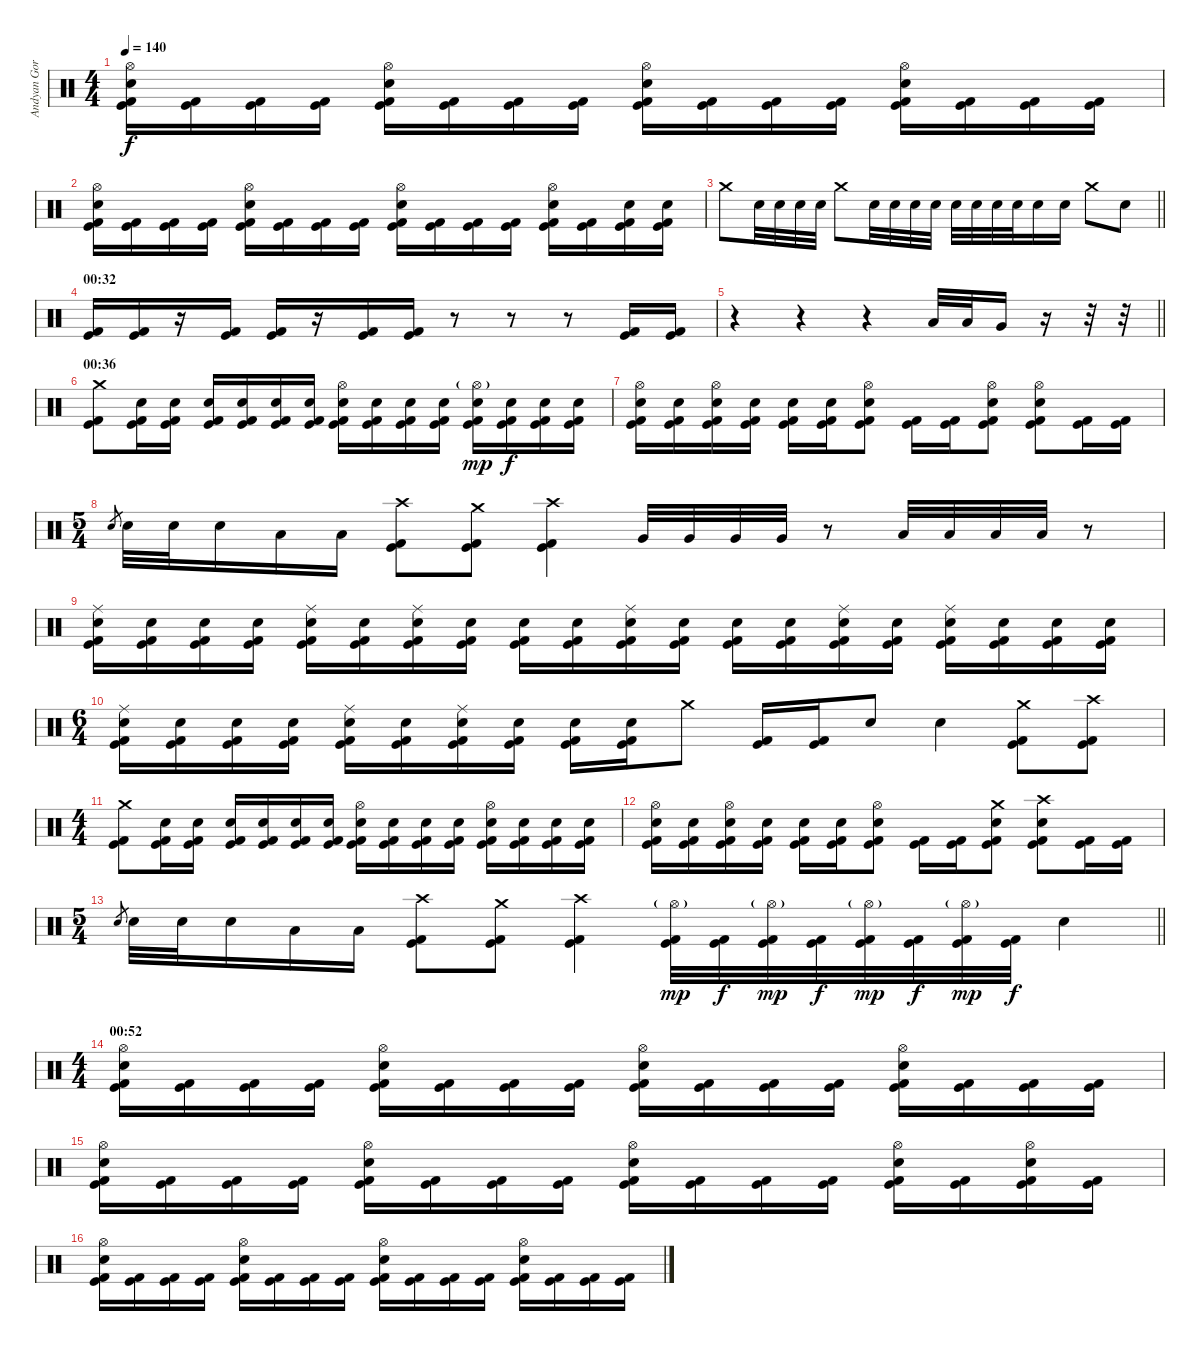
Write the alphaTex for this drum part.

\track ("Andyan Gorust" "Andyan Gor") {instrument percussion}
\staff {score}
\articulation defaults
\ts (4 4)
\tempo 140
\clef neutral
\ks c
("Hi-Hat (open)" "Electric Snare (hit)" "Kick (hit) 2" "Kick (hit)").16{dy f} ("Kick (hit)" "Kick (hit) 2").16 ("Kick (hit)" "Kick (hit) 2").16 ("Kick (hit)" "Kick (hit) 2").16 ("Hi-Hat (open)" "Electric Snare (hit)" "Kick (hit)" "Kick (hit) 2").16 ("Kick (hit)" "Kick (hit) 2").16 ("Kick (hit)" "Kick (hit) 2").16 ("Kick (hit)" "Kick (hit) 2").16 ("Hi-Hat (open)" "Electric Snare (hit)" "Kick (hit)" "Kick (hit) 2").16 ("Kick (hit)" "Kick (hit) 2").16 ("Kick (hit)" "Kick (hit) 2").16 ("Kick (hit)" "Kick (hit) 2").16 ("Hi-Hat (open)" "Electric Snare (hit)" "Kick (hit)" "Kick (hit) 2").16 ("Kick (hit)" "Kick (hit) 2").16 ("Kick (hit)" "Kick (hit) 2").16 ("Kick (hit)" "Kick (hit) 2").16 |
("Hi-Hat (open)" "Electric Snare (hit)" "Kick (hit) 2" "Kick (hit)").16 ("Kick (hit)" "Kick (hit) 2").16 ("Kick (hit)" "Kick (hit) 2").16 ("Kick (hit)" "Kick (hit) 2").16 ("Hi-Hat (open)" "Electric Snare (hit)" "Kick (hit)" "Kick (hit) 2").16 ("Kick (hit)" "Kick (hit) 2").16 ("Kick (hit)" "Kick (hit) 2").16 ("Kick (hit)" "Kick (hit) 2").16 ("Hi-Hat (open)" "Electric Snare (hit)" "Kick (hit)" "Kick (hit) 2").16 ("Kick (hit)" "Kick (hit) 2").16 ("Kick (hit)" "Kick (hit) 2").16 ("Kick (hit)" "Kick (hit) 2").16 ("Hi-Hat (open)" "Electric Snare (hit)" "Kick (hit)" "Kick (hit) 2").16 ("Kick (hit)" "Kick (hit) 2").16 ("Electric Snare (hit)" "Kick (hit)" "Kick (hit) 2").16 ("Electric Snare (hit)" "Kick (hit)" "Kick (hit) 2").16 |
\barLineRight lightlight "Crash medium (hit)".8 "Electric Snare (hit)".32 "Electric Snare (hit)".32 "Electric Snare (hit)".32 "Electric Snare (hit)".32 "Crash medium (hit)".8 "Electric Snare (hit)".32 "Electric Snare (hit)".32 "Electric Snare (hit)".32 "Electric Snare (hit)".32 "Electric Snare (hit)".32 "Electric Snare (hit)".32 "Electric Snare (hit)".32 "Electric Snare (hit)".32 "Electric Snare (hit)".16 "Electric Snare (hit)".16 "Crash medium (hit)".8 "Electric Snare (hit)".8
|
\section ("" "00:32")
("Kick (hit)" "Kick (hit) 2").16 ("Kick (hit)" "Kick (hit) 2").16 r.16 ("Kick (hit)" "Kick (hit) 2").16 ("Kick (hit)" "Kick (hit) 2").16 r.16 ("Kick (hit)" "Kick (hit) 2").16 ("Kick (hit)" "Kick (hit) 2").16 r.8 r.8 r.8 ("Kick (hit)" "Kick (hit) 2").16 ("Kick (hit)" "Kick (hit) 2").16 |
\barLineRight lightlight
r.4 r.4 r.4 "Low Tom (hit)".32 "Low Tom (hit)".32 "Very Low Tom (hit)".16 r.16 r.32 r.32 |
\section ("" "00:36")
("Crash medium (hit)" "Kick (hit)" "Kick (hit) 2").8 ("Electric Snare (hit)" "Kick (hit)" "Kick (hit) 2").16 ("Electric Snare (hit)" "Kick (hit)" "Kick (hit) 2").16 ("Electric Snare (hit)" "Kick (hit)" "Kick (hit) 2").16 ("Electric Snare (hit)" "Kick (hit)" "Kick (hit) 2").16 ("Electric Snare (hit)" "Kick (hit)" "Kick (hit) 2").16 ("Electric Snare (hit)" "Kick (hit)" "Kick (hit) 2").16 ("Hi-Hat (open)" "Electric Snare (hit)" "Kick (hit)" "Kick (hit) 2").16 ("Electric Snare (hit)" "Kick (hit)" "Kick (hit) 2").16 ("Electric Snare (hit)" "Kick (hit)" "Kick (hit) 2").16 ("Electric Snare (hit)" "Kick (hit)" "Kick (hit) 2").16 ("Hi-Hat (open)"{g} "Electric Snare (hit)" "Kick (hit)" "Kick (hit) 2").16{dy mp} ("Electric Snare (hit)" "Kick (hit)" "Kick (hit) 2").16{dy f} ("Electric Snare (hit)" "Kick (hit)" "Kick (hit) 2").16 ("Electric Snare (hit)" "Kick (hit)" "Kick (hit) 2").16 |
("Hi-Hat (open)" "Electric Snare (hit)" "Kick (hit)" "Kick (hit) 2").16 ("Electric Snare (hit)" "Kick (hit)" "Kick (hit) 2").16 ("Hi-Hat (open)" "Electric Snare (hit)" "Kick (hit)" "Kick (hit) 2").16 ("Electric Snare (hit)" "Kick (hit)" "Kick (hit) 2").16 ("Electric Snare (hit)" "Kick (hit)" "Kick (hit) 2").16 ("Electric Snare (hit)" "Kick (hit)" "Kick (hit) 2").16 ("Hi-Hat (open)" "Electric Snare (hit)" "Kick (hit)" "Kick (hit) 2").8 ("Kick (hit)" "Kick (hit) 2").16 ("Kick (hit)" "Kick (hit) 2").16 ("Hi-Hat (open)" "Electric Snare (hit)" "Kick (hit)" "Kick (hit) 2").8 ("Hi-Hat (open)" "Electric Snare (hit)" "Kick (hit)" "Kick (hit) 2").8 ("Kick (hit)" "Kick (hit) 2").16 ("Kick (hit)" "Kick (hit) 2").16 |
\ts (5 4)
"Electric Snare (hit)".8{gr} "Electric Snare (hit)".32 "Electric Snare (hit)".32 "Electric Snare (hit)".16 "Low Tom (hit)".16 "Low Tom (hit)".16 ("Crash high (hit)" "Kick (hit)" "Kick (hit) 2").8 ("Crash medium (hit)" "Kick (hit)" "Kick (hit) 2").8 ("Crash high (hit)" "Kick (hit)" "Kick (hit) 2").4 "Very Low Tom (hit)".32 "Very Low Tom (hit)".32 "Very Low Tom (hit)".32 "Very Low Tom (hit)".32 r.8 "Low Tom (hit)".32 "Low Tom (hit)".32 "Low Tom (hit)".32 "Low Tom (hit)".32 r.8 |
("Ride (middle)" "Electric Snare (hit)" "Kick (hit)" "Kick (hit) 2").16 ("Electric Snare (hit)" "Kick (hit)" "Kick (hit) 2").16 ("Electric Snare (hit)" "Kick (hit)" "Kick (hit) 2").16 ("Electric Snare (hit)" "Kick (hit)" "Kick (hit) 2").16 ("Ride (middle)" "Electric Snare (hit)" "Kick (hit)" "Kick (hit) 2").16 ("Electric Snare (hit)" "Kick (hit)" "Kick (hit) 2").16 ("Ride (middle)" "Electric Snare (hit)" "Kick (hit)" "Kick (hit) 2").16 ("Electric Snare (hit)" "Kick (hit)" "Kick (hit) 2").16 ("Electric Snare (hit)" "Kick (hit)" "Kick (hit) 2").16 ("Electric Snare (hit)" "Kick (hit)" "Kick (hit) 2").16 ("Ride (middle)" "Electric Snare (hit)" "Kick (hit)" "Kick (hit) 2").16 ("Electric Snare (hit)" "Kick (hit)" "Kick (hit) 2").16 ("Electric Snare (hit)" "Kick (hit)" "Kick (hit) 2").16 ("Electric Snare (hit)" "Kick (hit)" "Kick (hit) 2").16 ("Ride (middle)" "Electric Snare (hit)" "Kick (hit)" "Kick (hit) 2").16 ("Electric Snare (hit)" "Kick (hit)" "Kick (hit) 2").16 ("Ride (middle)" "Electric Snare (hit)" "Kick (hit)" "Kick (hit) 2").16 ("Electric Snare (hit)" "Kick (hit)" "Kick (hit) 2").16 ("Electric Snare (hit)" "Kick (hit)" "Kick (hit) 2").16 ("Electric Snare (hit)" "Kick (hit)" "Kick (hit) 2").16 |
\ts (6 4)
("Ride (middle)" "Electric Snare (hit)" "Kick (hit)" "Kick (hit) 2").16 ("Electric Snare (hit)" "Kick (hit)" "Kick (hit) 2").16 ("Electric Snare (hit)" "Kick (hit)" "Kick (hit) 2").16 ("Electric Snare (hit)" "Kick (hit)" "Kick (hit) 2").16 ("Ride (middle)" "Electric Snare (hit)" "Kick (hit)" "Kick (hit) 2").16 ("Electric Snare (hit)" "Kick (hit)" "Kick (hit) 2").16 ("Ride (middle)" "Electric Snare (hit)" "Kick (hit)" "Kick (hit) 2").16 ("Electric Snare (hit)" "Kick (hit)" "Kick (hit) 2").16 ("Electric Snare (hit)" "Kick (hit)" "Kick (hit) 2").16 ("Electric Snare (hit)" "Kick (hit)" "Kick (hit) 2").16 "Crash medium (hit)".8 ("Kick (hit)" "Kick (hit) 2").16 ("Kick (hit)" "Kick (hit) 2").16 "Electric Snare (hit)".8 "Electric Snare (hit)".4 ("Crash medium (hit)" "Kick (hit)" "Kick (hit) 2").8 ("Crash high (hit)" "Kick (hit)" "Kick (hit) 2").8 |
\ts (4 4)
("Crash medium (hit)" "Kick (hit)" "Kick (hit) 2").8 ("Electric Snare (hit)" "Kick (hit)" "Kick (hit) 2").16 ("Electric Snare (hit)" "Kick (hit)" "Kick (hit) 2").16 ("Electric Snare (hit)" "Kick (hit)" "Kick (hit) 2").16 ("Electric Snare (hit)" "Kick (hit)" "Kick (hit) 2").16 ("Electric Snare (hit)" "Kick (hit)" "Kick (hit) 2").16 ("Electric Snare (hit)" "Kick (hit)" "Kick (hit) 2").16 ("Hi-Hat (open)" "Electric Snare (hit)" "Kick (hit)" "Kick (hit) 2").16 ("Electric Snare (hit)" "Kick (hit)" "Kick (hit) 2").16 ("Electric Snare (hit)" "Kick (hit)" "Kick (hit) 2").16 ("Electric Snare (hit)" "Kick (hit)" "Kick (hit) 2").16 ("Hi-Hat (open)" "Electric Snare (hit)" "Kick (hit)" "Kick (hit) 2").16 ("Electric Snare (hit)" "Kick (hit)" "Kick (hit) 2").16 ("Electric Snare (hit)" "Kick (hit)" "Kick (hit) 2").16 ("Electric Snare (hit)" "Kick (hit)" "Kick (hit) 2").16 |
("Hi-Hat (open)" "Electric Snare (hit)" "Kick (hit)" "Kick (hit) 2").16 ("Electric Snare (hit)" "Kick (hit)" "Kick (hit) 2").16 ("Hi-Hat (open)" "Electric Snare (hit)" "Kick (hit)" "Kick (hit) 2").16 ("Electric Snare (hit)" "Kick (hit)" "Kick (hit) 2").16 ("Electric Snare (hit)" "Kick (hit)" "Kick (hit) 2").16 ("Electric Snare (hit)" "Kick (hit)" "Kick (hit) 2").16 ("Hi-Hat (open)" "Electric Snare (hit)" "Kick (hit)" "Kick (hit) 2").8 ("Kick (hit)" "Kick (hit) 2").16 ("Kick (hit)" "Kick (hit) 2").16 ("Crash medium (hit)" "Electric Snare (hit)" "Kick (hit)" "Kick (hit) 2").8 ("Crash high (hit)" "Electric Snare (hit)" "Kick (hit)" "Kick (hit) 2").8 ("Kick (hit)" "Kick (hit) 2").16 ("Kick (hit)" "Kick (hit) 2").16 |
\ts (5 4)
\barLineRight lightlight "Electric Snare (hit)".8{gr} "Electric Snare (hit)".32 "Electric Snare (hit)".32 "Electric Snare (hit)".16 "Low Tom (hit)".16 "Low Tom (hit)".16
("Crash high (hit)" "Kick (hit)" "Kick (hit) 2").8 ("Crash medium (hit)" "Kick (hit)" "Kick (hit) 2").8 ("Crash high (hit)" "Kick (hit)" "Kick (hit) 2").4 ("Hi-Hat (open)"{g} "Kick (hit)" "Kick (hit) 2").32{dy mp} ("Kick (hit)" "Kick (hit) 2").32{dy f} ("Hi-Hat (open)"{g} "Kick (hit)" "Kick (hit) 2").32{dy mp} ("Kick (hit)" "Kick (hit) 2").32{dy f} ("Hi-Hat (open)"{g} "Kick (hit)" "Kick (hit) 2").32{dy mp} ("Kick (hit)" "Kick (hit) 2").32{dy f} ("Hi-Hat (open)"{g} "Kick (hit)" "Kick (hit) 2").32{dy mp} ("Kick (hit)" "Kick (hit) 2").32{dy f} "Electric Snare (hit)".4 |
\ts (4 4)
\section ("" "00:52")
("Hi-Hat (open)" "Electric Snare (hit)" "Kick (hit)" "Kick (hit) 2").16 ("Kick (hit)" "Kick (hit) 2").16 ("Kick (hit)" "Kick (hit) 2").16 ("Kick (hit)" "Kick (hit) 2").16 ("Hi-Hat (open)" "Electric Snare (hit)" "Kick (hit)" "Kick (hit) 2").16 ("Kick (hit)" "Kick (hit) 2").16 ("Kick (hit)" "Kick (hit) 2").16 ("Kick (hit)" "Kick (hit) 2").16 ("Hi-Hat (open)" "Electric Snare (hit)" "Kick (hit)" "Kick (hit) 2").16 ("Kick (hit)" "Kick (hit) 2").16 ("Kick (hit)" "Kick (hit) 2").16 ("Kick (hit)" "Kick (hit) 2").16 ("Hi-Hat (open)" "Electric Snare (hit)" "Kick (hit)" "Kick (hit) 2").16 ("Kick (hit)" "Kick (hit) 2").16 ("Kick (hit)" "Kick (hit) 2").16 ("Kick (hit)" "Kick (hit) 2").16 |
("Hi-Hat (open)" "Electric Snare (hit)" "Kick (hit)" "Kick (hit) 2").16 ("Kick (hit)" "Kick (hit) 2").16 ("Kick (hit)" "Kick (hit) 2").16 ("Kick (hit)" "Kick (hit) 2").16 ("Hi-Hat (open)" "Electric Snare (hit)" "Kick (hit)" "Kick (hit) 2").16 ("Kick (hit)" "Kick (hit) 2").16 ("Kick (hit)" "Kick (hit) 2").16 ("Kick (hit)" "Kick (hit) 2").16 ("Hi-Hat (open)" "Electric Snare (hit)" "Kick (hit)" "Kick (hit) 2").16 ("Kick (hit)" "Kick (hit) 2").16 ("Kick (hit)" "Kick (hit) 2").16 ("Kick (hit)" "Kick (hit) 2").16 ("Hi-Hat (open)" "Electric Snare (hit)" "Kick (hit)" "Kick (hit) 2").16 ("Kick (hit)" "Kick (hit) 2").16 ("Hi-Hat (open)" "Electric Snare (hit)" "Kick (hit)" "Kick (hit) 2").16 ("Kick (hit)" "Kick (hit) 2").16 |
("Hi-Hat (open)" "Electric Snare (hit)" "Kick (hit)" "Kick (hit) 2").16 ("Kick (hit)" "Kick (hit) 2").16 ("Kick (hit)" "Kick (hit) 2").16 ("Kick (hit)" "Kick (hit) 2").16 ("Hi-Hat (open)" "Electric Snare (hit)" "Kick (hit)" "Kick (hit) 2").16 ("Kick (hit)" "Kick (hit) 2").16 ("Kick (hit)" "Kick (hit) 2").16 ("Kick (hit)" "Kick (hit) 2").16 ("Hi-Hat (open)" "Electric Snare (hit)" "Kick (hit)" "Kick (hit) 2").16 ("Kick (hit)" "Kick (hit) 2").16 ("Kick (hit)" "Kick (hit) 2").16 ("Kick (hit)" "Kick (hit) 2").16 ("Hi-Hat (open)" "Electric Snare (hit)" "Kick (hit)" "Kick (hit) 2").16 ("Kick (hit)" "Kick (hit) 2").16 ("Kick (hit)" "Kick (hit) 2").16 ("Kick (hit)" "Kick (hit) 2").16
